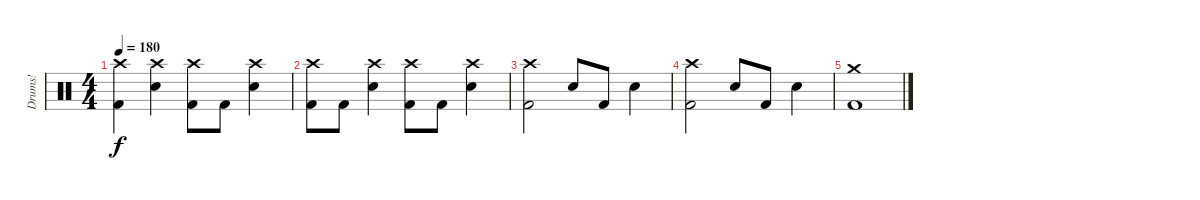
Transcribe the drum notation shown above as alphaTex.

\track ("Drums!" "Drums!") {instrument percussion}
\staff {score}
\articulation defaults
\ts (4 4)
\tempo 180
\clef neutral
\ks c
("Crash high (hit)" "Kick (hit) 2").4{dy f} ("Crash high (hit)" "Electric Snare (hit)").4 ("Crash high (hit)" "Kick (hit) 2").8 "Kick (hit) 2".8 ("Crash high (hit)" "Electric Snare (hit)").4 |
("Crash high (hit)" "Kick (hit) 2").8 "Kick (hit) 2".8 ("Crash high (hit)" "Electric Snare (hit)").4 ("Crash high (hit)" "Kick (hit) 2").8 "Kick (hit) 2".8 ("Crash high (hit)" "Electric Snare (hit)").4 |
("Crash high (hit)" "Kick (hit) 2").2 "Electric Snare (hit)".8 "Kick (hit) 2".8 "Electric Snare (hit)".4 |
("Crash high (hit)" "Kick (hit) 2").2 "Electric Snare (hit)".8 "Kick (hit) 2".8 "Electric Snare (hit)".4 |
("Crash medium (hit)" "Kick (hit) 2").1
